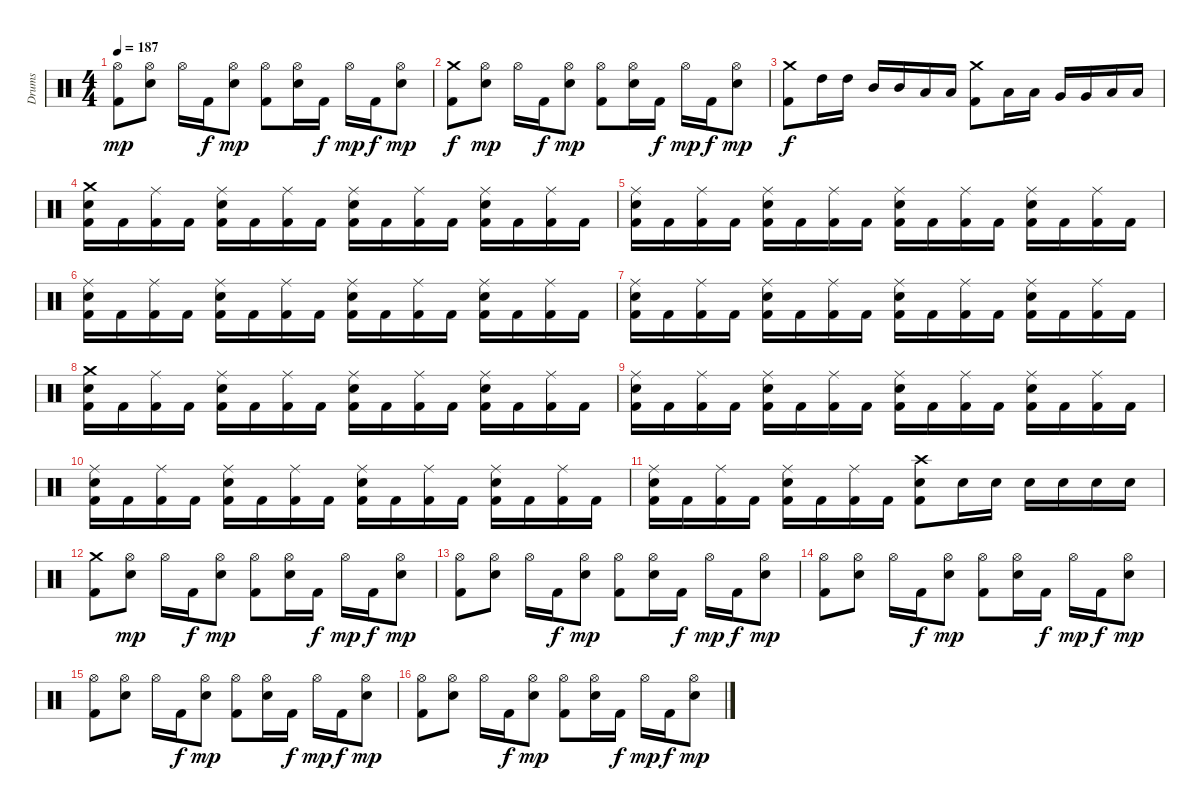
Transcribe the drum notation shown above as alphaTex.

\track ("Drums" "Drums") {instrument percussion}
\staff {score}
\articulation defaults
\ts (4 4)
\tempo 187
\clef neutral
\ks c
("Hi-Hat (open)" "Kick (hit) 2").8{dy mp} ("Hi-Hat (open)" "Snare (hit) 2").8 "Hi-Hat (open)".16 "Kick (hit) 2".16{dy f} ("Hi-Hat (open)" "Snare (hit) 2").8{dy mp} ("Hi-Hat (open)" "Kick (hit) 2").8 ("Hi-Hat (open)" "Snare (hit) 2").16 "Kick (hit) 2".16{dy f} "Hi-Hat (open)".16{dy mp} "Kick (hit) 2".16{dy f} ("Hi-Hat (open)" "Snare (hit) 2").8{dy mp} |
("Crash medium (hit)" "Kick (hit) 2").8{dy f} ("Hi-Hat (open)" "Snare (hit) 2").8{dy mp} "Hi-Hat (open)".16 "Kick (hit) 2".16{dy f} ("Hi-Hat (open)" "Snare (hit) 2").8{dy mp} ("Hi-Hat (open)" "Kick (hit) 2").8 ("Hi-Hat (open)" "Snare (hit) 2").16 "Kick (hit) 2".16{dy f} "Hi-Hat (open)".16{dy mp} "Kick (hit) 2".16{dy f} ("Hi-Hat (open)" "Snare (hit) 2").8{dy mp} |
("Crash medium (hit)" "Kick (hit) 2").8{dy f} "High Tom (hit)".16 "High Tom (hit)".16 "Mid Tom (hit)".16 "Mid Tom (hit)".16 "Low Tom (hit)".16 "Low Tom (hit)".16 ("Crash medium (hit)" "Kick (hit) 2").8 "Low Tom (hit)".16 "Low Tom (hit)".16 "Very Low Tom (hit)".16 "Very Low Tom (hit)".16 "Low Floor Tom (hit)".16 "Low Floor Tom (hit)".16 |
("Crash medium (hit)" "Snare (hit) 2" "Kick (hit) 2").16 "Kick (hit) 2".16 ("Ride (middle)" "Kick (hit) 2").16 "Kick (hit) 2".16 ("Ride (middle)" "Snare (hit) 2" "Kick (hit) 2").16 "Kick (hit) 2".16 ("Ride (middle)" "Kick (hit) 2").16 "Kick (hit) 2".16 ("Ride (middle)" "Snare (hit) 2" "Kick (hit) 2").16 "Kick (hit) 2".16 ("Ride (middle)" "Kick (hit) 2").16 "Kick (hit) 2".16 ("Ride (middle)" "Snare (hit) 2" "Kick (hit) 2").16 "Kick (hit) 2".16 ("Ride (middle)" "Kick (hit) 2").16 "Kick (hit) 2".16 |
("Ride (middle)" "Snare (hit) 2" "Kick (hit) 2").16 "Kick (hit) 2".16 ("Ride (middle)" "Kick (hit) 2").16 "Kick (hit) 2".16 ("Ride (middle)" "Snare (hit) 2" "Kick (hit) 2").16 "Kick (hit) 2".16 ("Ride (middle)" "Kick (hit) 2").16 "Kick (hit) 2".16 ("Ride (middle)" "Snare (hit) 2" "Kick (hit) 2").16 "Kick (hit) 2".16 ("Ride (middle)" "Kick (hit) 2").16 "Kick (hit) 2".16 ("Ride (middle)" "Snare (hit) 2" "Kick (hit) 2").16 "Kick (hit) 2".16 ("Ride (middle)" "Kick (hit) 2").16 "Kick (hit) 2".16 |
("Ride (middle)" "Snare (hit) 2" "Kick (hit) 2").16 "Kick (hit) 2".16 ("Ride (middle)" "Kick (hit) 2").16 "Kick (hit) 2".16 ("Ride (middle)" "Snare (hit) 2" "Kick (hit) 2").16 "Kick (hit) 2".16 ("Ride (middle)" "Kick (hit) 2").16 "Kick (hit) 2".16 ("Ride (middle)" "Snare (hit) 2" "Kick (hit) 2").16 "Kick (hit) 2".16 ("Ride (middle)" "Kick (hit) 2").16 "Kick (hit) 2".16 ("Ride (middle)" "Snare (hit) 2" "Kick (hit) 2").16 "Kick (hit) 2".16 ("Ride (middle)" "Kick (hit) 2").16 "Kick (hit) 2".16 |
("Ride (middle)" "Snare (hit) 2" "Kick (hit) 2").16 "Kick (hit) 2".16 ("Ride (middle)" "Kick (hit) 2").16 "Kick (hit) 2".16 ("Ride (middle)" "Snare (hit) 2" "Kick (hit) 2").16 "Kick (hit) 2".16 ("Ride (middle)" "Kick (hit) 2").16 "Kick (hit) 2".16 ("Ride (middle)" "Snare (hit) 2" "Kick (hit) 2").16 "Kick (hit) 2".16 ("Ride (middle)" "Kick (hit) 2").16 "Kick (hit) 2".16 ("Ride (middle)" "Snare (hit) 2" "Kick (hit) 2").16 "Kick (hit) 2".16 ("Ride (middle)" "Kick (hit) 2").16 "Kick (hit) 2".16 |
("Crash medium (hit)" "Snare (hit) 2" "Kick (hit) 2").16 "Kick (hit) 2".16 ("Ride (middle)" "Kick (hit) 2").16 "Kick (hit) 2".16 ("Ride (middle)" "Snare (hit) 2" "Kick (hit) 2").16 "Kick (hit) 2".16 ("Ride (middle)" "Kick (hit) 2").16 "Kick (hit) 2".16 ("Ride (middle)" "Snare (hit) 2" "Kick (hit) 2").16 "Kick (hit) 2".16 ("Ride (middle)" "Kick (hit) 2").16 "Kick (hit) 2".16 ("Ride (middle)" "Snare (hit) 2" "Kick (hit) 2").16 "Kick (hit) 2".16 ("Ride (middle)" "Kick (hit) 2").16 "Kick (hit) 2".16 |
("Ride (middle)" "Snare (hit) 2" "Kick (hit) 2").16 "Kick (hit) 2".16 ("Ride (middle)" "Kick (hit) 2").16 "Kick (hit) 2".16 ("Ride (middle)" "Snare (hit) 2" "Kick (hit) 2").16 "Kick (hit) 2".16 ("Ride (middle)" "Kick (hit) 2").16 "Kick (hit) 2".16 ("Ride (middle)" "Snare (hit) 2" "Kick (hit) 2").16 "Kick (hit) 2".16 ("Ride (middle)" "Kick (hit) 2").16 "Kick (hit) 2".16 ("Ride (middle)" "Snare (hit) 2" "Kick (hit) 2").16 "Kick (hit) 2".16 ("Ride (middle)" "Kick (hit) 2").16 "Kick (hit) 2".16 |
("Ride (middle)" "Snare (hit) 2" "Kick (hit) 2").16 "Kick (hit) 2".16 ("Ride (middle)" "Kick (hit) 2").16 "Kick (hit) 2".16 ("Ride (middle)" "Snare (hit) 2" "Kick (hit) 2").16 "Kick (hit) 2".16 ("Ride (middle)" "Kick (hit) 2").16 "Kick (hit) 2".16 ("Ride (middle)" "Snare (hit) 2" "Kick (hit) 2").16 "Kick (hit) 2".16 ("Ride (middle)" "Kick (hit) 2").16 "Kick (hit) 2".16 ("Ride (middle)" "Snare (hit) 2" "Kick (hit) 2").16 "Kick (hit) 2".16 ("Ride (middle)" "Kick (hit) 2").16 "Kick (hit) 2".16 |
("Ride (middle)" "Snare (hit) 2" "Kick (hit) 2").16 "Kick (hit) 2".16 ("Ride (middle)" "Kick (hit) 2").16 "Kick (hit) 2".16 ("Ride (middle)" "Snare (hit) 2" "Kick (hit) 2").16 "Kick (hit) 2".16 ("Ride (middle)" "Kick (hit) 2").16 "Kick (hit) 2".16 ("Crash high (hit)" "Snare (hit) 2" "Kick (hit) 2").8 "Snare (hit) 2".16 "Snare (hit) 2".16 "Snare (hit) 2".16 "Snare (hit) 2".16 "Snare (hit) 2".16 "Snare (hit) 2".16 |
("Crash medium (hit)" "Kick (hit) 2").8 ("Hi-Hat (open)" "Snare (hit) 2").8{dy mp} "Hi-Hat (open)".16 "Kick (hit) 2".16{dy f} ("Hi-Hat (open)" "Snare (hit) 2").8{dy mp} ("Hi-Hat (open)" "Kick (hit) 2").8 ("Hi-Hat (open)" "Snare (hit) 2").16 "Kick (hit) 2".16{dy f} "Hi-Hat (open)".16{dy mp} "Kick (hit) 2".16{dy f} ("Hi-Hat (open)" "Snare (hit) 2").8{dy mp} |
("Hi-Hat (open)" "Kick (hit) 2").8 ("Hi-Hat (open)" "Snare (hit) 2").8 "Hi-Hat (open)".16 "Kick (hit) 2".16{dy f} ("Hi-Hat (open)" "Snare (hit) 2").8{dy mp} ("Hi-Hat (open)" "Kick (hit) 2").8 ("Hi-Hat (open)" "Snare (hit) 2").16 "Kick (hit) 2".16{dy f} "Hi-Hat (open)".16{dy mp} "Kick (hit) 2".16{dy f} ("Hi-Hat (open)" "Snare (hit) 2").8{dy mp} |
("Hi-Hat (open)" "Kick (hit) 2").8 ("Hi-Hat (open)" "Snare (hit) 2").8 "Hi-Hat (open)".16 "Kick (hit) 2".16{dy f} ("Hi-Hat (open)" "Snare (hit) 2").8{dy mp} ("Hi-Hat (open)" "Kick (hit) 2").8 ("Hi-Hat (open)" "Snare (hit) 2").16 "Kick (hit) 2".16{dy f} "Hi-Hat (open)".16{dy mp} "Kick (hit) 2".16{dy f} ("Hi-Hat (open)" "Snare (hit) 2").8{dy mp} |
("Hi-Hat (open)" "Kick (hit) 2").8 ("Hi-Hat (open)" "Snare (hit) 2").8 "Hi-Hat (open)".16 "Kick (hit) 2".16{dy f} ("Hi-Hat (open)" "Snare (hit) 2").8{dy mp} ("Hi-Hat (open)" "Kick (hit) 2").8 ("Hi-Hat (open)" "Snare (hit) 2").16 "Kick (hit) 2".16{dy f} "Hi-Hat (open)".16{dy mp} "Kick (hit) 2".16{dy f} ("Hi-Hat (open)" "Snare (hit) 2").8{dy mp} |
("Hi-Hat (open)" "Kick (hit) 2").8 ("Hi-Hat (open)" "Snare (hit) 2").8 "Hi-Hat (open)".16 "Kick (hit) 2".16{dy f} ("Hi-Hat (open)" "Snare (hit) 2").8{dy mp} ("Hi-Hat (open)" "Kick (hit) 2").8 ("Hi-Hat (open)" "Snare (hit) 2").16 "Kick (hit) 2".16{dy f} "Hi-Hat (open)".16{dy mp} "Kick (hit) 2".16{dy f} ("Hi-Hat (open)" "Snare (hit) 2").8{dy mp}
